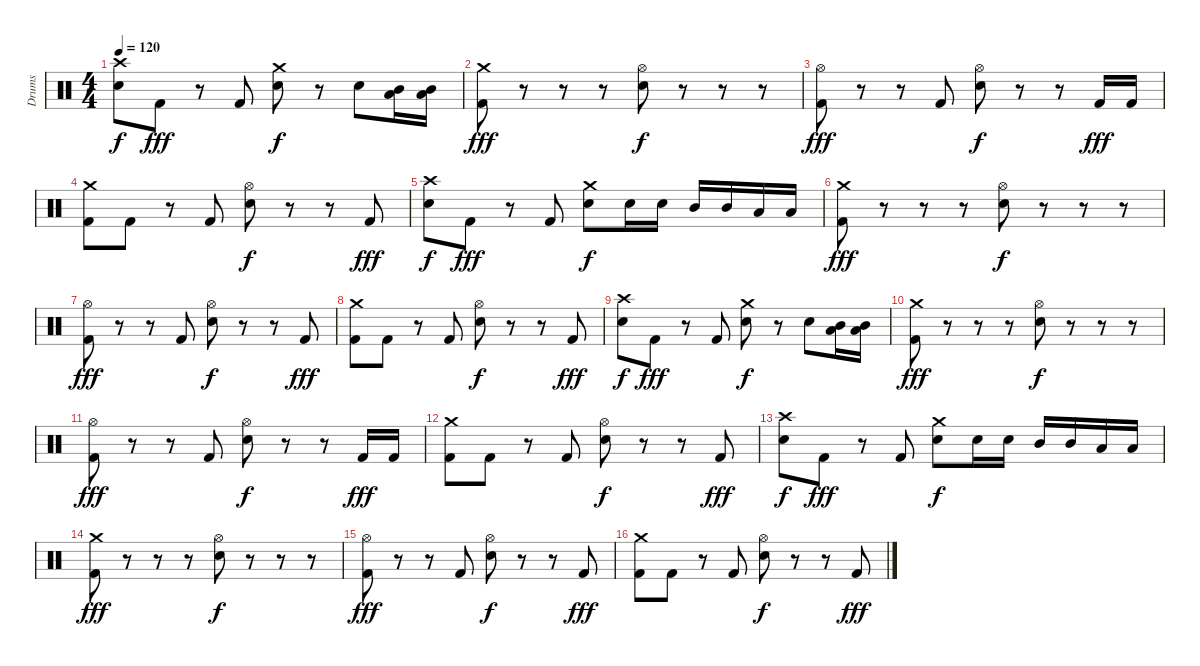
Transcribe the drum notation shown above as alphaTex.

\track ("Drums" "Drums") {instrument percussion}
\staff {score}
\articulation defaults
\ts (4 4)
\tempo 120
\clef neutral
\ks c
("Crash high (hit)" "Snare (hit) 2").8{dy f} "Kick (hit) 2".8{dy fff} r.8 "Kick (hit) 2".8 ("Crash medium (hit)" "Snare (hit) 2").8{dy f} r.8 "Snare (hit) 2".8 ("Mid Tom (hit)" "Low Tom (hit)").16 ("Mid Tom (hit)" "Low Tom (hit)").16 |
("Crash medium (hit)" "Kick (hit) 2").8{dy fff} r.8 r.8 r.8 ("Hi-Hat (open)" "Snare (hit) 2").8{dy f} r.8 r.8 r.8 |
("Hi-Hat (open)" "Kick (hit) 2").8{dy fff} r.8 r.8 "Kick (hit) 2".8 ("Hi-Hat (open)" "Snare (hit) 2").8{dy f} r.8 r.8 "Kick (hit) 2".16{dy fff} "Kick (hit) 2".16 |
("Crash medium (hit)" "Kick (hit) 2").8 "Kick (hit) 2".8 r.8 "Kick (hit) 2".8 ("Hi-Hat (open)" "Snare (hit) 2").8{dy f} r.8 r.8 "Kick (hit) 2".8{dy fff} |
("Crash high (hit)" "Snare (hit) 2").8{dy f} "Kick (hit) 2".8{dy fff} r.8 "Kick (hit) 2".8 ("Crash medium (hit)" "Snare (hit) 2").8{dy f} "Snare (hit) 2".16 "Snare (hit) 2".16 "Mid Tom (hit)".16 "Mid Tom (hit)".16 "Low Tom (hit)".16 "Low Tom (hit)".16 |
("Crash medium (hit)" "Kick (hit) 2").8{dy fff} r.8 r.8 r.8 ("Hi-Hat (open)" "Snare (hit) 2").8{dy f} r.8 r.8 r.8 |
("Hi-Hat (open)" "Kick (hit) 2").8{dy fff} r.8 r.8 "Kick (hit) 2".8 ("Hi-Hat (open)" "Snare (hit) 2").8{dy f} r.8 r.8 "Kick (hit) 2".8{dy fff} |
("Crash medium (hit)" "Kick (hit) 2").8 "Kick (hit) 2".8 r.8 "Kick (hit) 2".8 ("Hi-Hat (open)" "Snare (hit) 2").8{dy f} r.8 r.8 "Kick (hit) 2".8{dy fff} |
("Crash high (hit)" "Snare (hit) 2").8{dy f} "Kick (hit) 2".8{dy fff} r.8 "Kick (hit) 2".8 ("Crash medium (hit)" "Snare (hit) 2").8{dy f} r.8 "Snare (hit) 2".8 ("Mid Tom (hit)" "Low Tom (hit)").16 ("Mid Tom (hit)" "Low Tom (hit)").16 |
("Crash medium (hit)" "Kick (hit) 2").8{dy fff} r.8 r.8 r.8 ("Hi-Hat (open)" "Snare (hit) 2").8{dy f} r.8 r.8 r.8 |
("Hi-Hat (open)" "Kick (hit) 2").8{dy fff} r.8 r.8 "Kick (hit) 2".8 ("Hi-Hat (open)" "Snare (hit) 2").8{dy f} r.8 r.8 "Kick (hit) 2".16{dy fff} "Kick (hit) 2".16 |
("Crash medium (hit)" "Kick (hit) 2").8 "Kick (hit) 2".8 r.8 "Kick (hit) 2".8 ("Hi-Hat (open)" "Snare (hit) 2").8{dy f} r.8 r.8 "Kick (hit) 2".8{dy fff} |
("Crash high (hit)" "Snare (hit) 2").8{dy f} "Kick (hit) 2".8{dy fff} r.8 "Kick (hit) 2".8 ("Crash medium (hit)" "Snare (hit) 2").8{dy f} "Snare (hit) 2".16 "Snare (hit) 2".16 "Mid Tom (hit)".16 "Mid Tom (hit)".16 "Low Tom (hit)".16 "Low Tom (hit)".16 |
("Crash medium (hit)" "Kick (hit) 2").8{dy fff} r.8 r.8 r.8 ("Hi-Hat (open)" "Snare (hit) 2").8{dy f} r.8 r.8 r.8 |
("Hi-Hat (open)" "Kick (hit) 2").8{dy fff} r.8 r.8 "Kick (hit) 2".8 ("Hi-Hat (open)" "Snare (hit) 2").8{dy f} r.8 r.8 "Kick (hit) 2".8{dy fff} |
("Crash medium (hit)" "Kick (hit) 2").8 "Kick (hit) 2".8 r.8 "Kick (hit) 2".8 ("Hi-Hat (open)" "Snare (hit) 2").8{dy f} r.8 r.8 "Kick (hit) 2".8{dy fff}
